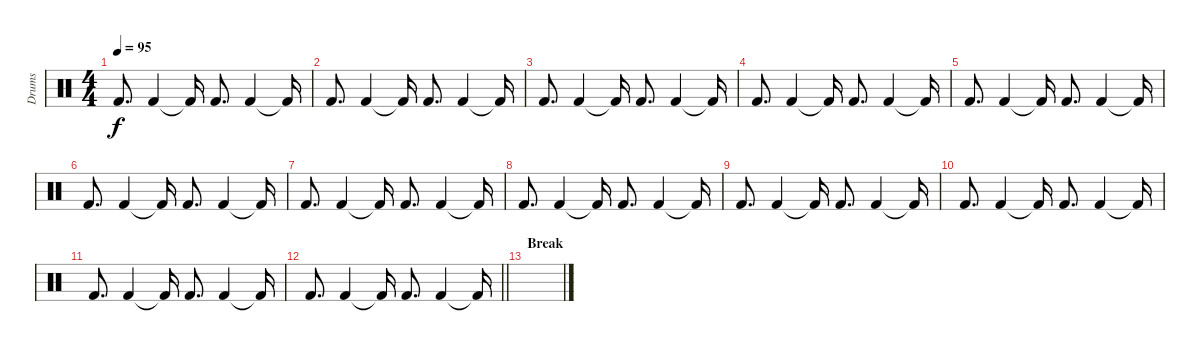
\track ("Drums" "Drums") {instrument percussion}
\staff {score}
\articulation defaults
\ts (4 4)
\tempo 95
\clef neutral
\ks c "Kick (hit) 2".8{d dy f} "Kick (hit) 2".4 "Kick (hit) 2"{t}.16 "Kick (hit) 2".8{d} "Kick (hit) 2".4 "Kick (hit) 2"{t}.16
|
"Kick (hit) 2".8{d} "Kick (hit) 2".4 "Kick (hit) 2"{t}.16 "Kick (hit) 2".8{d} "Kick (hit) 2".4 "Kick (hit) 2"{t}.16 |
"Kick (hit) 2".8{d} "Kick (hit) 2".4 "Kick (hit) 2"{t}.16 "Kick (hit) 2".8{d} "Kick (hit) 2".4 "Kick (hit) 2"{t}.16 |
"Kick (hit) 2".8{d} "Kick (hit) 2".4 "Kick (hit) 2"{t}.16 "Kick (hit) 2".8{d} "Kick (hit) 2".4 "Kick (hit) 2"{t}.16 |
"Kick (hit) 2".8{d} "Kick (hit) 2".4 "Kick (hit) 2"{t}.16 "Kick (hit) 2".8{d} "Kick (hit) 2".4 "Kick (hit) 2"{t}.16 |
"Kick (hit) 2".8{d} "Kick (hit) 2".4 "Kick (hit) 2"{t}.16 "Kick (hit) 2".8{d} "Kick (hit) 2".4 "Kick (hit) 2"{t}.16 |
"Kick (hit) 2".8{d} "Kick (hit) 2".4 "Kick (hit) 2"{t}.16 "Kick (hit) 2".8{d} "Kick (hit) 2".4 "Kick (hit) 2"{t}.16 |
"Kick (hit) 2".8{d} "Kick (hit) 2".4 "Kick (hit) 2"{t}.16 "Kick (hit) 2".8{d} "Kick (hit) 2".4 "Kick (hit) 2"{t}.16 |
"Kick (hit) 2".8{d} "Kick (hit) 2".4 "Kick (hit) 2"{t}.16 "Kick (hit) 2".8{d} "Kick (hit) 2".4 "Kick (hit) 2"{t}.16 |
"Kick (hit) 2".8{d} "Kick (hit) 2".4 "Kick (hit) 2"{t}.16 "Kick (hit) 2".8{d} "Kick (hit) 2".4 "Kick (hit) 2"{t}.16 |
"Kick (hit) 2".8{d} "Kick (hit) 2".4 "Kick (hit) 2"{t}.16 "Kick (hit) 2".8{d} "Kick (hit) 2".4 "Kick (hit) 2"{t}.16 |
\barLineRight lightlight "Kick (hit) 2".8{d} "Kick (hit) 2".4 "Kick (hit) 2"{t}.16 "Kick (hit) 2".8{d} "Kick (hit) 2".4 "Kick (hit) 2"{t}.16
|
\section ("" "Break")
